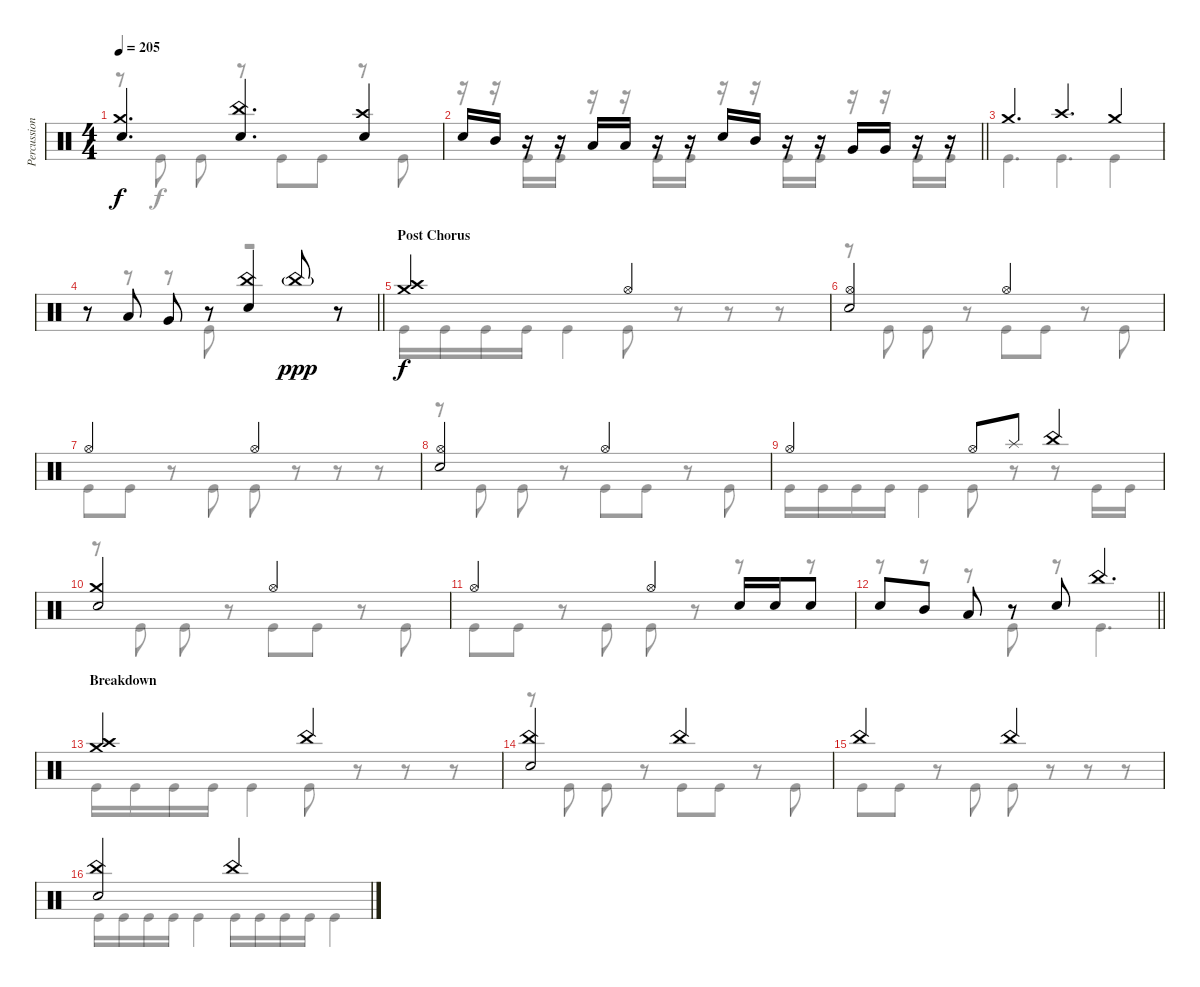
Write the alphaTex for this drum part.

\track ("Percussion" "Percussion") {instrument percussion}
\staff {score}
\articulation defaults
\voice
\ts (4 4)
\tempo 205
\clef neutral
\ks c
("Crash medium (hit)" "Electric Snare (hit)").4{d dy f} ("China (hit)" "Electric Snare (hit)").4{d} ("Crash high (hit)" "Electric Snare (hit)").4 |
\barLineRight lightlight "Electric Snare (hit)".16 "Mid Tom (hit)".16
r.16 r.16 "Low Tom (hit)".16 "Low Tom (hit)".16 r.16 r.16 "Electric Snare (hit)".16 "Mid Tom (hit)".16 r.16 r.16 "Very Low Tom (hit)".16 "Very Low Tom (hit)".16 r.16 r.16 |
\section ("" "")
"Crash medium (hit)".4{d} "Crash high (hit)".4{d} "Crash medium (hit)".4 |
\barLineRight lightlight
r.8 "Low Tom (hit)".8 "Very Low Tom (hit)".8 r.8 ("China (hit)" "Electric Snare (hit)").4 "China (hit)"{g}.8{dy ppp} r.8 |
\section ("" "Post Chorus")
("Crash medium (hit)" "Crash high (hit)").2{dy f} "Hi-Hat (open)".2 |
("Hi-Hat (open)" "Electric Snare (hit)").2 "Hi-Hat (open)".2 |
"Hi-Hat (open)".2 "Hi-Hat (open)".2 |
("Hi-Hat (open)" "Electric Snare (hit)").2 "Hi-Hat (open)".2 |
"Hi-Hat (open)".2 "Hi-Hat (open)".8 "Splash (hit)".8 "China (hit)".4 |
("Crash medium (hit)" "Electric Snare (hit)").2 "Hi-Hat (open)".2 |
"Hi-Hat (open)".2 "Hi-Hat (open)".4 "Electric Snare (hit)".16 "Electric Snare (hit)".16 "Electric Snare (hit)".8 |
\barLineRight lightlight "Electric Snare (hit)".8 "Mid Tom (hit)".8 "Low Tom (hit)".8
r.8 "Electric Snare (hit)".8 "China (hit)".4{d} |
\section ("" "Breakdown")
("Crash medium (hit)" "Crash high (hit)").2 "China (hit)".2 |
("China (hit)" "Electric Snare (hit)").2 "China (hit)".2 |
"China (hit)".2 "China (hit)".2 |
("China (hit)" "Electric Snare (hit)").2 "China (hit)".2
\voice
\clef neutral
\ottava regular
\simile none
\ks c
r.8{dy f} "Kick (hit)".8 "Kick (hit)".8 r.8 "Kick (hit)".8 "Kick (hit)".8 r.8 "Kick (hit)".8 |
\barLineRight lightlight
r.16 r.16 "Kick (hit)".16 "Kick (hit)".16 r.16 r.16 "Kick (hit)".16 "Kick (hit)".16 r.16 r.16 "Kick (hit)".16 "Kick (hit)".16 r.16 r.16 "Kick (hit)".16 "Kick (hit)".16 |
"Kick (hit)".4{d} "Kick (hit)".4{d} "Kick (hit)".4 |
\barLineRight lightlight
r.8 r.8 r.8 "Kick (hit)".8 r.2 |
"Kick (hit)".16 "Kick (hit)".16 "Kick (hit)".16 "Kick (hit)".16 "Kick (hit)".4 "Kick (hit)".8 r.8 r.8 r.8 |
r.8 "Kick (hit)".8 "Kick (hit)".8 r.8 "Kick (hit)".8 "Kick (hit)".8 r.8 "Kick (hit)".8 |
"Kick (hit)".8 "Kick (hit)".8 r.8 "Kick (hit)".8 "Kick (hit)".8 r.8 r.8 r.8 |
r.8 "Kick (hit)".8 "Kick (hit)".8 r.8 "Kick (hit)".8 "Kick (hit)".8 r.8 "Kick (hit)".8 |
"Kick (hit)".16 "Kick (hit)".16 "Kick (hit)".16 "Kick (hit)".16 "Kick (hit)".4 "Kick (hit)".8 r.8 r.8 "Kick (hit)".16 "Kick (hit)".16 |
r.8 "Kick (hit)".8 "Kick (hit)".8 r.8 "Kick (hit)".8 "Kick (hit)".8 r.8 "Kick (hit)".8 |
"Kick (hit)".8 "Kick (hit)".8 r.8 "Kick (hit)".8 "Kick (hit)".8 r.8 r.8 r.8 |
\barLineRight lightlight
r.8 r.8 r.8 "Kick (hit)".8 r.8 "Kick (hit)".4{d} |
"Kick (hit)".16 "Kick (hit)".16 "Kick (hit)".16 "Kick (hit)".16 "Kick (hit)".4 "Kick (hit)".8 r.8 r.8 r.8 |
r.8 "Kick (hit)".8 "Kick (hit)".8 r.8 "Kick (hit)".8 "Kick (hit)".8 r.8 "Kick (hit)".8 |
"Kick (hit)".8 "Kick (hit)".8 r.8 "Kick (hit)".8 "Kick (hit)".8 r.8 r.8 r.8 |
"Kick (hit)".16 "Kick (hit)".16 "Kick (hit)".16 "Kick (hit)".16 "Kick (hit)".4 "Kick (hit)".16 "Kick (hit)".16 "Kick (hit)".16 "Kick (hit)".16 "Kick (hit)".4
